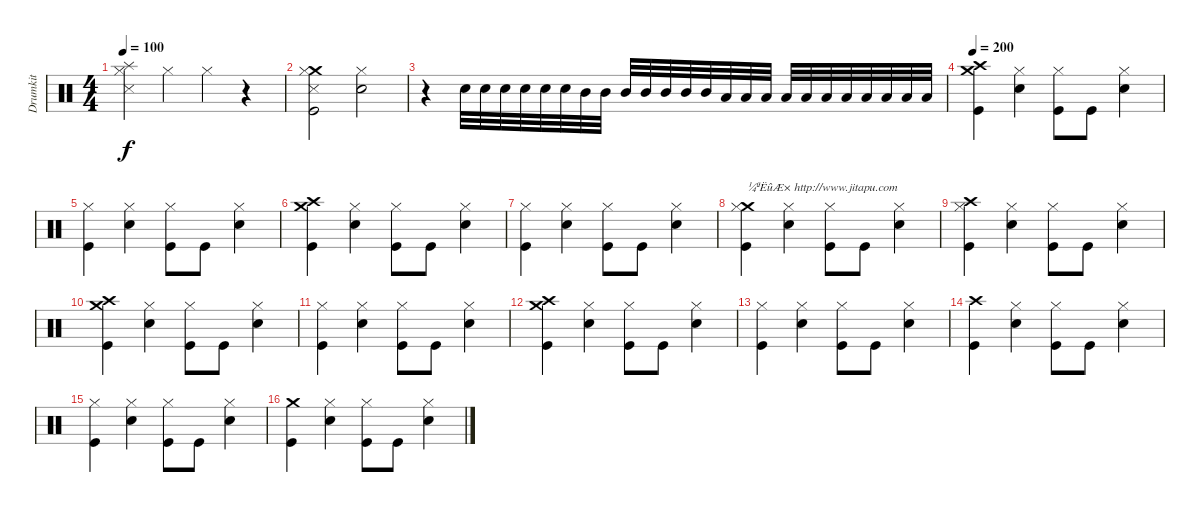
\track ("Drumkit" "Drumkit") {instrument percussion}
\staff {score}
\articulation defaults
\ts (4 4)
\tempo 100
\clef neutral
\ks c
("Splash (hit)" "Hi-Hat (closed)" "Snare (side stick) 3").4{dy f} "Hi-Hat (closed)".4 "Hi-Hat (closed)".4 r.4 |
("Crash medium (hit)" "Hi-Hat (closed)" "Snare (side stick) 3" "Kick (hit)").2 ("Hi-Hat (closed)" "Snare (hit) 2").2 |
r.4 "Snare (hit) 2".32 "Snare (hit) 2".32 "Snare (hit) 2".32 "Snare (hit) 2".32 "Snare (hit) 2".32 "Snare (hit) 2".32 "Mid Tom (hit)".32 "Mid Tom (hit)".32 "Mid Tom (hit)".32 "Mid Tom (hit)".32 "Mid Tom (hit)".32 "Mid Tom (hit)".32 "Mid Tom (hit)".32 "Low Tom (hit)".32 "Low Tom (hit)".32 "Low Tom (hit)".32 "Low Tom (hit)".32 "Low Tom (hit)".32 "Low Tom (hit)".32 "Low Tom (hit)".32 "Low Floor Tom (hit)".32 "Low Floor Tom (hit)".32 "Low Floor Tom (hit)".32 "Low Floor Tom (hit)".32 |
\tempo 200
("Crash medium (hit)" "Crash high (hit)" "Kick (hit)").4 ("Hi-Hat (closed)" "Snare (hit) 2").4 ("Hi-Hat (closed)" "Kick (hit)").8 "Kick (hit)".8 ("Hi-Hat (closed)" "Snare (hit) 2").4 |
("Hi-Hat (closed)" "Kick (hit)").4 ("Hi-Hat (closed)" "Snare (hit) 2").4 ("Hi-Hat (closed)" "Kick (hit)").8 "Kick (hit)".8 ("Hi-Hat (closed)" "Snare (hit) 2").4 |
("Crash medium (hit)" "Crash high (hit)" "Kick (hit)").4 ("Hi-Hat (closed)" "Snare (hit) 2").4 ("Hi-Hat (closed)" "Kick (hit)").8 "Kick (hit)".8 ("Hi-Hat (closed)" "Snare (hit) 2").4 |
("Hi-Hat (closed)" "Kick (hit)").4 ("Hi-Hat (closed)" "Snare (hit) 2").4 ("Hi-Hat (closed)" "Kick (hit)").8 "Kick (hit)".8 ("Hi-Hat (closed)" "Snare (hit) 2").4 |
("Crash medium (hit)" "Hi-Hat (closed)" "Kick (hit)").4{txt "¼ªËûÆ× http://www.jitapu.com"} ("Hi-Hat (closed)" "Snare (hit) 2").4 ("Hi-Hat (closed)" "Kick (hit)").8 "Kick (hit)".8 ("Hi-Hat (closed)" "Snare (hit) 2").4 |
("Crash high (hit)" "Hi-Hat (closed)" "Kick (hit)").4 ("Hi-Hat (closed)" "Snare (hit) 2").4 ("Hi-Hat (closed)" "Kick (hit)").8 "Kick (hit)".8 ("Hi-Hat (closed)" "Snare (hit) 2").4 |
("Crash medium (hit)" "Crash high (hit)" "Kick (hit)").4 ("Hi-Hat (closed)" "Snare (hit) 2").4 ("Hi-Hat (closed)" "Kick (hit)").8 "Kick (hit)".8 ("Hi-Hat (closed)" "Snare (hit) 2").4 |
("Hi-Hat (closed)" "Kick (hit)").4 ("Hi-Hat (closed)" "Snare (hit) 2").4 ("Hi-Hat (closed)" "Kick (hit)").8 "Kick (hit)".8 ("Hi-Hat (closed)" "Snare (hit) 2").4 |
("Crash medium (hit)" "Crash high (hit)" "Kick (hit)").4 ("Hi-Hat (closed)" "Snare (hit) 2").4 ("Hi-Hat (closed)" "Kick (hit)").8 "Kick (hit)".8 ("Hi-Hat (closed)" "Snare (hit) 2").4 |
("Hi-Hat (closed)" "Kick (hit)").4 ("Hi-Hat (closed)" "Snare (hit) 2").4 ("Hi-Hat (closed)" "Kick (hit)").8 "Kick (hit)".8 ("Hi-Hat (closed)" "Snare (hit) 2").4 |
("Crash high (hit)" "Kick (hit)").4 ("Hi-Hat (closed)" "Snare (hit) 2").4 ("Hi-Hat (closed)" "Kick (hit)").8 "Kick (hit)".8 ("Hi-Hat (closed)" "Snare (hit) 2").4 |
("Hi-Hat (closed)" "Kick (hit)").4 ("Hi-Hat (closed)" "Snare (hit) 2").4 ("Hi-Hat (closed)" "Kick (hit)").8 "Kick (hit)".8 ("Hi-Hat (closed)" "Snare (hit) 2").4 |
("Crash medium (hit)" "Kick (hit)").4 ("Hi-Hat (closed)" "Snare (hit) 2").4 ("Hi-Hat (closed)" "Kick (hit)").8 "Kick (hit)".8 ("Hi-Hat (closed)" "Snare (hit) 2").4
